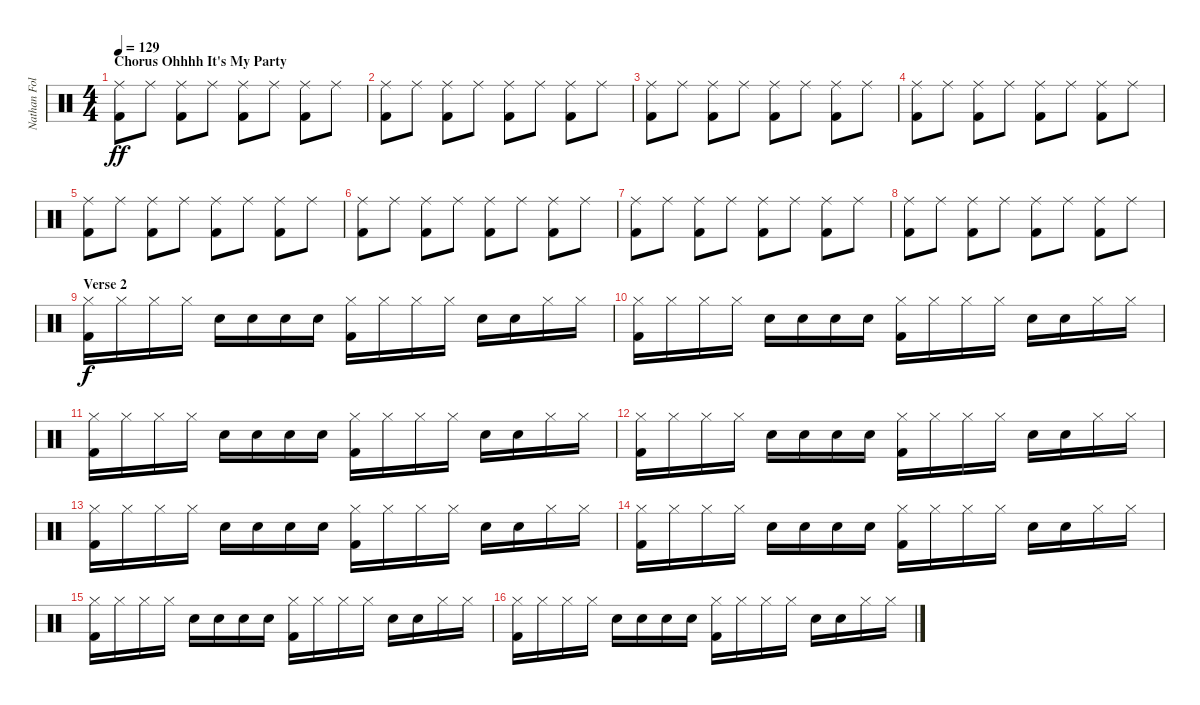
\track ("Nathan Followill" "Nathan Fol") {instrument percussion}
\staff {score}
\articulation defaults
\ts (4 4)
\section ("" "Chorus Ohhhh It's My Party")
\tempo 129
\clef neutral
\ks c
("Ride (middle)" "Kick (hit) 2").8{dy ff} "Ride (middle)".8 ("Ride (middle)" "Kick (hit) 2").8 "Ride (middle)".8 ("Ride (middle)" "Kick (hit) 2").8 "Ride (middle)".8 ("Ride (middle)" "Kick (hit) 2").8 "Ride (middle)".8 |
("Ride (middle)" "Kick (hit) 2").8 "Ride (middle)".8 ("Ride (middle)" "Kick (hit) 2").8 "Ride (middle)".8 ("Ride (middle)" "Kick (hit) 2").8 "Ride (middle)".8 ("Ride (middle)" "Kick (hit) 2").8 "Ride (middle)".8 |
("Ride (middle)" "Kick (hit) 2").8 "Ride (middle)".8 ("Ride (middle)" "Kick (hit) 2").8 "Ride (middle)".8 ("Ride (middle)" "Kick (hit) 2").8 "Ride (middle)".8 ("Ride (middle)" "Kick (hit) 2").8 "Ride (middle)".8 |
("Ride (middle)" "Kick (hit) 2").8 "Ride (middle)".8 ("Ride (middle)" "Kick (hit) 2").8 "Ride (middle)".8 ("Ride (middle)" "Kick (hit) 2").8 "Ride (middle)".8 ("Ride (middle)" "Kick (hit) 2").8 "Ride (middle)".8 |
("Ride (middle)" "Kick (hit) 2").8 "Ride (middle)".8 ("Ride (middle)" "Kick (hit) 2").8 "Ride (middle)".8 ("Ride (middle)" "Kick (hit) 2").8 "Ride (middle)".8 ("Ride (middle)" "Kick (hit) 2").8 "Ride (middle)".8 |
("Ride (middle)" "Kick (hit) 2").8 "Ride (middle)".8 ("Ride (middle)" "Kick (hit) 2").8 "Ride (middle)".8 ("Ride (middle)" "Kick (hit) 2").8 "Ride (middle)".8 ("Ride (middle)" "Kick (hit) 2").8 "Ride (middle)".8 |
("Ride (middle)" "Kick (hit) 2").8 "Ride (middle)".8 ("Ride (middle)" "Kick (hit) 2").8 "Ride (middle)".8 ("Ride (middle)" "Kick (hit) 2").8 "Ride (middle)".8 ("Ride (middle)" "Kick (hit) 2").8 "Ride (middle)".8 |
("Ride (middle)" "Kick (hit) 2").8 "Ride (middle)".8 ("Ride (middle)" "Kick (hit) 2").8 "Ride (middle)".8 ("Ride (middle)" "Kick (hit) 2").8 "Ride (middle)".8 ("Ride (middle)" "Kick (hit) 2").8 "Ride (middle)".8 |
\section ("" "Verse 2")
("Hi-Hat (closed)" "Kick (hit) 2").16{dy f} "Hi-Hat (closed)".16 "Hi-Hat (closed)".16 "Hi-Hat (closed)".16 "Electric Snare (hit)".16 "Electric Snare (hit)".16 "Electric Snare (hit)".16 "Electric Snare (hit)".16 ("Hi-Hat (closed)" "Kick (hit) 2").16 "Hi-Hat (closed)".16 "Hi-Hat (closed)".16 "Hi-Hat (closed)".16 "Electric Snare (hit)".16 "Electric Snare (hit)".16 "Hi-Hat (closed)".16 "Hi-Hat (closed)".16 |
("Hi-Hat (closed)" "Kick (hit) 2").16 "Hi-Hat (closed)".16 "Hi-Hat (closed)".16 "Hi-Hat (closed)".16 "Electric Snare (hit)".16 "Electric Snare (hit)".16 "Electric Snare (hit)".16 "Electric Snare (hit)".16 ("Hi-Hat (closed)" "Kick (hit) 2").16 "Hi-Hat (closed)".16 "Hi-Hat (closed)".16 "Hi-Hat (closed)".16 "Electric Snare (hit)".16 "Electric Snare (hit)".16 "Hi-Hat (closed)".16 "Hi-Hat (closed)".16 |
("Hi-Hat (closed)" "Kick (hit) 2").16 "Hi-Hat (closed)".16 "Hi-Hat (closed)".16 "Hi-Hat (closed)".16 "Electric Snare (hit)".16 "Electric Snare (hit)".16 "Electric Snare (hit)".16 "Electric Snare (hit)".16 ("Hi-Hat (closed)" "Kick (hit) 2").16 "Hi-Hat (closed)".16 "Hi-Hat (closed)".16 "Hi-Hat (closed)".16 "Electric Snare (hit)".16 "Electric Snare (hit)".16 "Hi-Hat (closed)".16 "Hi-Hat (closed)".16 |
("Hi-Hat (closed)" "Kick (hit) 2").16 "Hi-Hat (closed)".16 "Hi-Hat (closed)".16 "Hi-Hat (closed)".16 "Electric Snare (hit)".16 "Electric Snare (hit)".16 "Electric Snare (hit)".16 "Electric Snare (hit)".16 ("Hi-Hat (closed)" "Kick (hit) 2").16 "Hi-Hat (closed)".16 "Hi-Hat (closed)".16 "Hi-Hat (closed)".16 "Electric Snare (hit)".16 "Electric Snare (hit)".16 "Hi-Hat (closed)".16 "Hi-Hat (closed)".16 |
("Hi-Hat (closed)" "Kick (hit) 2").16 "Hi-Hat (closed)".16 "Hi-Hat (closed)".16 "Hi-Hat (closed)".16 "Electric Snare (hit)".16 "Electric Snare (hit)".16 "Electric Snare (hit)".16 "Electric Snare (hit)".16 ("Hi-Hat (closed)" "Kick (hit) 2").16 "Hi-Hat (closed)".16 "Hi-Hat (closed)".16 "Hi-Hat (closed)".16 "Electric Snare (hit)".16 "Electric Snare (hit)".16 "Hi-Hat (closed)".16 "Hi-Hat (closed)".16 |
("Hi-Hat (closed)" "Kick (hit) 2").16 "Hi-Hat (closed)".16 "Hi-Hat (closed)".16 "Hi-Hat (closed)".16 "Electric Snare (hit)".16 "Electric Snare (hit)".16 "Electric Snare (hit)".16 "Electric Snare (hit)".16 ("Hi-Hat (closed)" "Kick (hit) 2").16 "Hi-Hat (closed)".16 "Hi-Hat (closed)".16 "Hi-Hat (closed)".16 "Electric Snare (hit)".16 "Electric Snare (hit)".16 "Hi-Hat (closed)".16 "Hi-Hat (closed)".16 |
("Hi-Hat (closed)" "Kick (hit) 2").16 "Hi-Hat (closed)".16 "Hi-Hat (closed)".16 "Hi-Hat (closed)".16 "Electric Snare (hit)".16 "Electric Snare (hit)".16 "Electric Snare (hit)".16 "Electric Snare (hit)".16 ("Hi-Hat (closed)" "Kick (hit) 2").16 "Hi-Hat (closed)".16 "Hi-Hat (closed)".16 "Hi-Hat (closed)".16 "Electric Snare (hit)".16 "Electric Snare (hit)".16 "Hi-Hat (closed)".16 "Hi-Hat (closed)".16 |
("Hi-Hat (closed)" "Kick (hit) 2").16 "Hi-Hat (closed)".16 "Hi-Hat (closed)".16 "Hi-Hat (closed)".16 "Electric Snare (hit)".16 "Electric Snare (hit)".16 "Electric Snare (hit)".16 "Electric Snare (hit)".16 ("Hi-Hat (closed)" "Kick (hit) 2").16 "Hi-Hat (closed)".16 "Hi-Hat (closed)".16 "Hi-Hat (closed)".16 "Electric Snare (hit)".16 "Electric Snare (hit)".16 "Hi-Hat (closed)".16 "Hi-Hat (closed)".16
